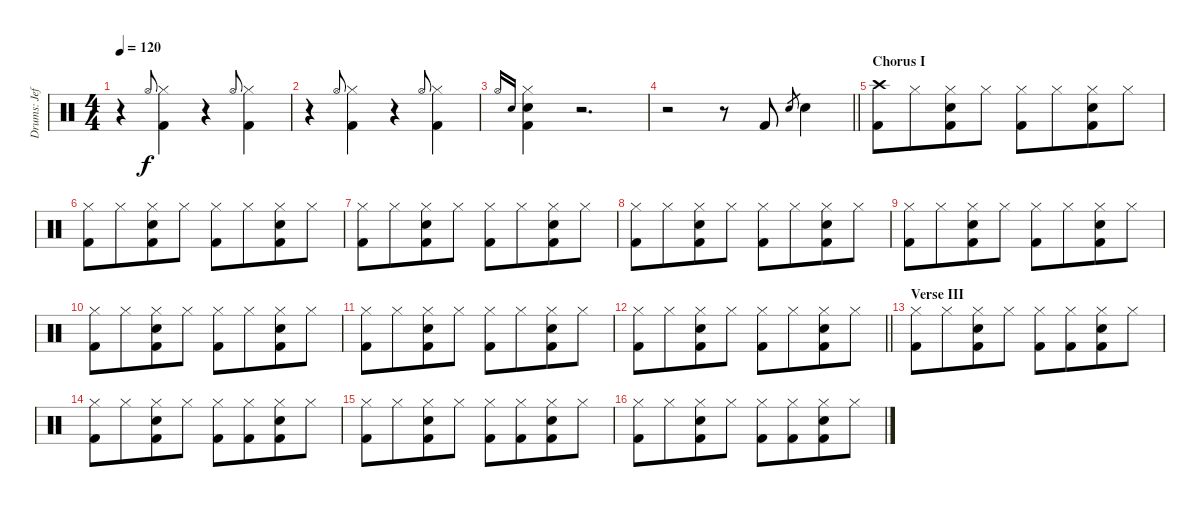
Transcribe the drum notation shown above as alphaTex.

\track ("Drums: Jeff" "Drums: Jef") {instrument percussion}
\staff {score}
\articulation defaults
\ts (4 4)
\tempo 120
\clef neutral
\ks c
r.4{dy f} "Hi-Hat (open)".8{gr onbeat} ("Hi-Hat (closed)" "Kick (hit) 2").4 r.4 "Hi-Hat (open)".8{gr onbeat} ("Hi-Hat (closed)" "Kick (hit) 2").4 |
r.4 "Hi-Hat (open)".8{gr onbeat} ("Hi-Hat (closed)" "Kick (hit) 2").4 r.4 "Hi-Hat (open)".8{gr onbeat} ("Hi-Hat (closed)" "Kick (hit) 2").4 |
"Hi-Hat (open)".16{gr onbeat} "Electric Snare (hit)".16{gr onbeat} ("Hi-Hat (closed)" "Snare (hit) 2" "Kick (hit) 2").4 r.2{d} |
\barLineRight lightlight
r.2 r.8 "Kick (hit) 2".8 "Electric Snare (hit)".8{gr} "Snare (hit) 2".4 |
\section ("" "Chorus I")
("Crash high (hit)" "Kick (hit) 2").8 "Hi-Hat (closed)".8{beam merge} ("Hi-Hat (closed)" "Electric Snare (hit)" "Kick (hit) 2").8 "Hi-Hat (closed)".8 ("Hi-Hat (closed)" "Kick (hit) 2").8 "Hi-Hat (closed)".8{beam merge} ("Hi-Hat (closed)" "Electric Snare (hit)" "Kick (hit) 2").8 "Hi-Hat (closed)".8 |
("Hi-Hat (closed)" "Kick (hit) 2").8 "Hi-Hat (closed)".8{beam merge} ("Hi-Hat (closed)" "Electric Snare (hit)" "Kick (hit) 2").8 "Hi-Hat (closed)".8 ("Hi-Hat (closed)" "Kick (hit) 2").8 "Hi-Hat (closed)".8{beam merge} ("Hi-Hat (closed)" "Electric Snare (hit)" "Kick (hit) 2").8 "Hi-Hat (closed)".8 |
("Hi-Hat (closed)" "Kick (hit) 2").8 "Hi-Hat (closed)".8{beam merge} ("Hi-Hat (closed)" "Electric Snare (hit)" "Kick (hit) 2").8 "Hi-Hat (closed)".8 ("Hi-Hat (closed)" "Kick (hit) 2").8 "Hi-Hat (closed)".8{beam merge} ("Hi-Hat (closed)" "Electric Snare (hit)" "Kick (hit) 2").8 "Hi-Hat (closed)".8 |
("Hi-Hat (closed)" "Kick (hit) 2").8 "Hi-Hat (closed)".8{beam merge} ("Hi-Hat (closed)" "Electric Snare (hit)" "Kick (hit) 2").8 "Hi-Hat (closed)".8 ("Hi-Hat (closed)" "Kick (hit) 2").8 "Hi-Hat (closed)".8{beam merge} ("Hi-Hat (closed)" "Electric Snare (hit)" "Kick (hit) 2").8 "Hi-Hat (closed)".8 |
("Hi-Hat (closed)" "Kick (hit) 2").8 "Hi-Hat (closed)".8{beam merge} ("Hi-Hat (closed)" "Electric Snare (hit)" "Kick (hit) 2").8 "Hi-Hat (closed)".8 ("Hi-Hat (closed)" "Kick (hit) 2").8 "Hi-Hat (closed)".8{beam merge} ("Hi-Hat (closed)" "Electric Snare (hit)" "Kick (hit) 2").8 "Hi-Hat (closed)".8 |
("Hi-Hat (closed)" "Kick (hit) 2").8 "Hi-Hat (closed)".8{beam merge} ("Hi-Hat (closed)" "Electric Snare (hit)" "Kick (hit) 2").8 "Hi-Hat (closed)".8 ("Hi-Hat (closed)" "Kick (hit) 2").8 "Hi-Hat (closed)".8{beam merge} ("Hi-Hat (closed)" "Electric Snare (hit)" "Kick (hit) 2").8 "Hi-Hat (closed)".8 |
("Hi-Hat (closed)" "Kick (hit) 2").8 "Hi-Hat (closed)".8{beam merge} ("Hi-Hat (closed)" "Electric Snare (hit)" "Kick (hit) 2").8 "Hi-Hat (closed)".8 ("Hi-Hat (closed)" "Kick (hit) 2").8 "Hi-Hat (closed)".8{beam merge} ("Hi-Hat (closed)" "Electric Snare (hit)" "Kick (hit) 2").8 "Hi-Hat (closed)".8 |
\barLineRight lightlight
("Hi-Hat (closed)" "Kick (hit) 2").8 "Hi-Hat (closed)".8{beam merge} ("Hi-Hat (closed)" "Electric Snare (hit)" "Kick (hit) 2").8 "Hi-Hat (closed)".8 ("Hi-Hat (closed)" "Kick (hit) 2").8 "Hi-Hat (closed)".8{beam merge} ("Hi-Hat (closed)" "Electric Snare (hit)" "Kick (hit) 2").8 "Hi-Hat (closed)".8 |
\section ("" "Verse III")
("Hi-Hat (closed)" "Kick (hit) 2").8 "Hi-Hat (closed)".8{beam merge} ("Hi-Hat (closed)" "Electric Snare (hit)" "Kick (hit) 2").8 "Hi-Hat (closed)".8 ("Hi-Hat (closed)" "Kick (hit) 2").8 ("Hi-Hat (closed)" "Kick (hit) 2").8{beam merge} ("Hi-Hat (closed)" "Electric Snare (hit)" "Kick (hit) 2").8 "Hi-Hat (closed)".8 |
("Hi-Hat (closed)" "Kick (hit) 2").8 "Hi-Hat (closed)".8{beam merge} ("Hi-Hat (closed)" "Electric Snare (hit)" "Kick (hit) 2").8 "Hi-Hat (closed)".8 ("Hi-Hat (closed)" "Kick (hit) 2").8 ("Hi-Hat (closed)" "Kick (hit) 2").8{beam merge} ("Hi-Hat (closed)" "Electric Snare (hit)" "Kick (hit) 2").8 "Hi-Hat (closed)".8 |
("Hi-Hat (closed)" "Kick (hit) 2").8 "Hi-Hat (closed)".8{beam merge} ("Hi-Hat (closed)" "Electric Snare (hit)" "Kick (hit) 2").8 "Hi-Hat (closed)".8 ("Hi-Hat (closed)" "Kick (hit) 2").8 ("Hi-Hat (closed)" "Kick (hit) 2").8{beam merge} ("Hi-Hat (closed)" "Electric Snare (hit)" "Kick (hit) 2").8 "Hi-Hat (closed)".8 |
("Hi-Hat (closed)" "Kick (hit) 2").8 "Hi-Hat (closed)".8{beam merge} ("Hi-Hat (closed)" "Electric Snare (hit)" "Kick (hit) 2").8 "Hi-Hat (closed)".8 ("Hi-Hat (closed)" "Kick (hit) 2").8 ("Hi-Hat (closed)" "Kick (hit) 2").8{beam merge} ("Hi-Hat (closed)" "Electric Snare (hit)" "Kick (hit) 2").8 "Hi-Hat (closed)".8
